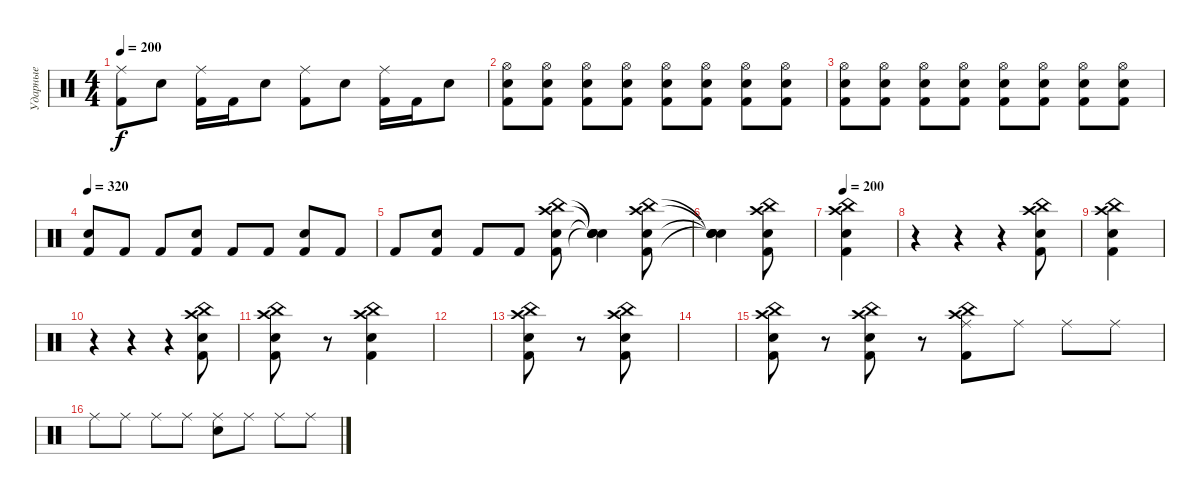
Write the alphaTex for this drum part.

\track ("Ударные" "Ударные") {instrument percussion}
\staff {score}
\articulation defaults
\ts (4 4)
\tempo 200
\clef neutral
\ks c
("Kick (hit) 2" "Ride (middle)").8{dy f} "Electric Snare (hit)".8 ("Kick (hit) 2" "Ride (middle)").16 "Kick (hit) 2".16 "Electric Snare (hit)".8 ("Kick (hit) 2" "Ride (middle)").8 "Electric Snare (hit)".8 ("Kick (hit) 2" "Ride (middle)").16 "Kick (hit) 2".16 "Electric Snare (hit)".8 |
("Electric Snare (hit)" "Kick (hit) 2" "Hi-Hat (open)").8 ("Hi-Hat (open)" "Kick (hit) 2" "Electric Snare (hit)").8 ("Electric Snare (hit)" "Kick (hit) 2" "Hi-Hat (open)").8 ("Hi-Hat (open)" "Kick (hit) 2" "Electric Snare (hit)").8 ("Electric Snare (hit)" "Kick (hit) 2" "Hi-Hat (open)").8 ("Hi-Hat (open)" "Kick (hit) 2" "Electric Snare (hit)").8 ("Electric Snare (hit)" "Kick (hit) 2" "Hi-Hat (open)").8 ("Hi-Hat (open)" "Kick (hit) 2" "Electric Snare (hit)").8 |
("Electric Snare (hit)" "Kick (hit) 2" "Hi-Hat (open)").8 ("Hi-Hat (open)" "Kick (hit) 2" "Electric Snare (hit)").8 ("Electric Snare (hit)" "Kick (hit) 2" "Hi-Hat (open)").8 ("Hi-Hat (open)" "Kick (hit) 2" "Electric Snare (hit)").8 ("Electric Snare (hit)" "Kick (hit) 2" "Hi-Hat (open)").8 ("Hi-Hat (open)" "Kick (hit) 2" "Electric Snare (hit)").8 ("Electric Snare (hit)" "Kick (hit) 2" "Hi-Hat (open)").8 ("Hi-Hat (open)" "Kick (hit) 2" "Electric Snare (hit)").8 |
\tempo 340
\tempo 320
("Kick (hit) 2" "Electric Snare (hit)").8 "Kick (hit) 2".8 "Kick (hit) 2".8 ("Kick (hit) 2" "Electric Snare (hit)").8 "Kick (hit) 2".8 "Kick (hit) 2".8 ("Kick (hit) 2" "Electric Snare (hit)").8 "Kick (hit) 2".8 |
"Kick (hit) 2".8 ("Kick (hit) 2" "Electric Snare (hit)").8 "Kick (hit) 2".8 "Kick (hit) 2".8 ("Kick (hit) 2" "Electric Snare (hit)" "Crash high (hit)" "China (hit)").8 ("Snare (hit)"{t} "Snare (hit)"{t} "Snare (hit)"{t} "Snare (hit)"{t}).4 ("Kick (hit) 2" "Electric Snare (hit)" "Crash high (hit)" "China (hit)").8 |
("Snare (hit)"{t} "Snare (hit)"{t} "Snare (hit)"{t} "Snare (hit)"{t}).4 ("China (hit)" "Crash high (hit)" "Kick (hit) 2" "Electric Snare (hit)").8 |
\tempo 200
("Kick (hit) 2" "Crash high (hit)" "Electric Snare (hit)" "China (hit)").4 |
r.4 r.4 r.4 ("China (hit)" "Crash high (hit)" "Kick (hit) 2" "Electric Snare (hit)").8 |
("Electric Snare (hit)" "Kick (hit) 2" "Crash high (hit)" "China (hit)").4 |
r.4 r.4 r.4 ("Electric Snare (hit)" "Kick (hit) 2" "Crash high (hit)" "China (hit)").8 |
("Kick (hit) 2" "Electric Snare (hit)" "Crash high (hit)" "China (hit)").8 r.8 ("Crash high (hit)" "China (hit)" "Kick (hit) 2" "Electric Snare (hit)").4 |
|
("Kick (hit) 2" "Electric Snare (hit)" "Crash high (hit)" "China (hit)").8 r.8 ("China (hit)" "Crash high (hit)" "Kick (hit) 2" "Electric Snare (hit)").8 |
|
("Electric Snare (hit)" "Kick (hit) 2" "Crash high (hit)" "China (hit)").8 r.8 ("China (hit)" "Crash high (hit)" "Kick (hit) 2" "Electric Snare (hit)").8 r.8 ("Kick (hit) 2" "Ride (middle)" "China (hit)" "Crash high (hit)").8 "Ride (middle)".8 "Ride (middle)".8 "Ride (middle)".8 |
"Ride (middle)".8 "Ride (middle)".8 "Ride (middle)".8 "Ride (middle)".8 ("Ride (middle)" "Electric Snare (hit)").8 "Ride (middle)".8 "Ride (middle)".8 "Ride (middle)".8
